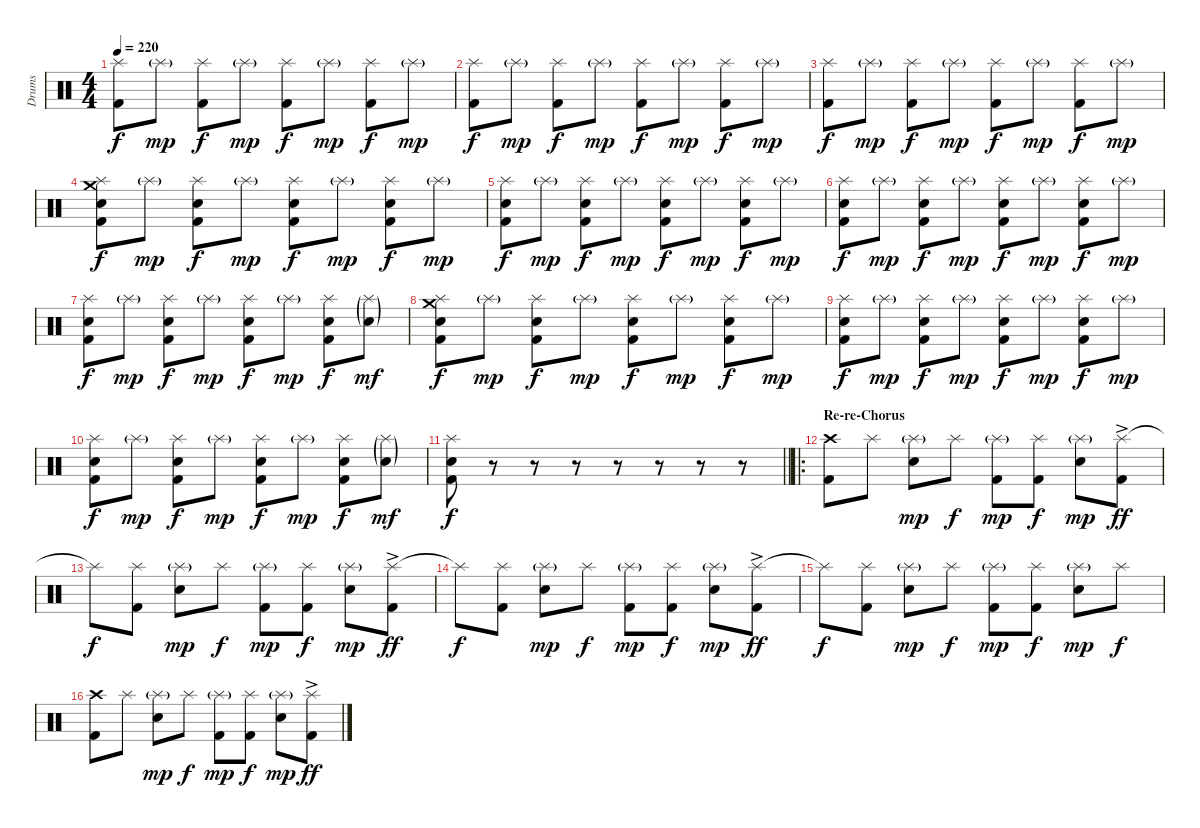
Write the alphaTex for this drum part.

\track ("Drums" "Drums") {instrument percussion}
\staff {score}
\articulation defaults
\ts (4 4)
\tempo 220
\clef neutral
\ks c
("Splash (hit)" "Kick (hit) 2").8{dy f} "Splash (hit)"{g}.8{dy mp} ("Splash (hit)" "Kick (hit) 2").8{dy f} "Splash (hit)"{g}.8{dy mp} ("Splash (hit)" "Kick (hit) 2").8{dy f} "Splash (hit)"{g}.8{dy mp} ("Splash (hit)" "Kick (hit) 2").8{dy f} "Splash (hit)"{g}.8{dy mp} |
("Splash (hit)" "Kick (hit) 2").8{dy f} "Splash (hit)"{g}.8{dy mp} ("Splash (hit)" "Kick (hit) 2").8{dy f} "Splash (hit)"{g}.8{dy mp} ("Splash (hit)" "Kick (hit) 2").8{dy f} "Splash (hit)"{g}.8{dy mp} ("Splash (hit)" "Kick (hit) 2").8{dy f} "Splash (hit)"{g}.8{dy mp} |
("Splash (hit)" "Kick (hit) 2").8{dy f} "Splash (hit)"{g}.8{dy mp} ("Splash (hit)" "Kick (hit) 2").8{dy f} "Splash (hit)"{g}.8{dy mp} ("Splash (hit)" "Kick (hit) 2").8{dy f} "Splash (hit)"{g}.8{dy mp} ("Splash (hit)" "Kick (hit) 2").8{dy f} "Splash (hit)"{g}.8{dy mp} |
("Crash medium (hit)" "Splash (hit)" "Electric Snare (hit)" "Kick (hit) 2").8{dy f} "Splash (hit)"{g}.8{dy mp} ("Splash (hit)" "Electric Snare (hit)" "Kick (hit) 2").8{dy f} "Splash (hit)"{g}.8{dy mp} ("Splash (hit)" "Electric Snare (hit)" "Kick (hit) 2").8{dy f} "Splash (hit)"{g}.8{dy mp} ("Splash (hit)" "Electric Snare (hit)" "Kick (hit) 2").8{dy f} "Splash (hit)"{g}.8{dy mp} |
("Splash (hit)" "Electric Snare (hit)" "Kick (hit) 2").8{dy f} "Splash (hit)"{g}.8{dy mp} ("Splash (hit)" "Electric Snare (hit)" "Kick (hit) 2").8{dy f} "Splash (hit)"{g}.8{dy mp} ("Splash (hit)" "Electric Snare (hit)" "Kick (hit) 2").8{dy f} "Splash (hit)"{g}.8{dy mp} ("Splash (hit)" "Electric Snare (hit)" "Kick (hit) 2").8{dy f} "Splash (hit)"{g}.8{dy mp} |
("Splash (hit)" "Electric Snare (hit)" "Kick (hit) 2").8{dy f} "Splash (hit)"{g}.8{dy mp} ("Splash (hit)" "Electric Snare (hit)" "Kick (hit) 2").8{dy f} "Splash (hit)"{g}.8{dy mp} ("Splash (hit)" "Electric Snare (hit)" "Kick (hit) 2").8{dy f} "Splash (hit)"{g}.8{dy mp} ("Splash (hit)" "Electric Snare (hit)" "Kick (hit) 2").8{dy f} "Splash (hit)"{g}.8{dy mp} |
("Splash (hit)" "Electric Snare (hit)" "Kick (hit) 2").8{dy f} "Splash (hit)"{g}.8{dy mp} ("Splash (hit)" "Electric Snare (hit)" "Kick (hit) 2").8{dy f} "Splash (hit)"{g}.8{dy mp} ("Splash (hit)" "Electric Snare (hit)" "Kick (hit) 2").8{dy f} "Splash (hit)"{g}.8{dy mp} ("Splash (hit)" "Electric Snare (hit)" "Kick (hit) 2").8{dy f} ("Splash (hit)"{g} "Electric Snare (hit)"{g}).8{dy mf} |
("Crash medium (hit)" "Splash (hit)" "Electric Snare (hit)" "Kick (hit) 2").8{dy f} "Splash (hit)"{g}.8{dy mp} ("Splash (hit)" "Electric Snare (hit)" "Kick (hit) 2").8{dy f} "Splash (hit)"{g}.8{dy mp} ("Splash (hit)" "Electric Snare (hit)" "Kick (hit) 2").8{dy f} "Splash (hit)"{g}.8{dy mp} ("Splash (hit)" "Electric Snare (hit)" "Kick (hit) 2").8{dy f} "Splash (hit)"{g}.8{dy mp} |
("Splash (hit)" "Electric Snare (hit)" "Kick (hit) 2").8{dy f} "Splash (hit)"{g}.8{dy mp} ("Splash (hit)" "Electric Snare (hit)" "Kick (hit) 2").8{dy f} "Splash (hit)"{g}.8{dy mp} ("Splash (hit)" "Electric Snare (hit)" "Kick (hit) 2").8{dy f} "Splash (hit)"{g}.8{dy mp} ("Splash (hit)" "Electric Snare (hit)" "Kick (hit) 2").8{dy f} "Splash (hit)"{g}.8{dy mp} |
("Splash (hit)" "Electric Snare (hit)" "Kick (hit) 2").8{dy f} "Splash (hit)"{g}.8{dy mp} ("Splash (hit)" "Electric Snare (hit)" "Kick (hit) 2").8{dy f} "Splash (hit)"{g}.8{dy mp} ("Splash (hit)" "Electric Snare (hit)" "Kick (hit) 2").8{dy f} "Splash (hit)"{g}.8{dy mp} ("Splash (hit)" "Electric Snare (hit)" "Kick (hit) 2").8{dy f} ("Splash (hit)"{g} "Electric Snare (hit)"{g}).8{dy mf} |
\barLineRight lightlight
("Splash (hit)" "Electric Snare (hit)" "Kick (hit) 2").8{dy f} r.8 r.8 r.8 r.8 r.8 r.8 r.8 |
\ro
\section ("" "Re-re-Chorus")
("Crash high (hit)" "Kick (hit) 2").8 "Splash (hit)".8 ("Splash (hit)"{g} "Electric Snare (hit)").8{dy mp} "Splash (hit)".8{dy f} ("Splash (hit)"{g} "Kick (hit) 2").8{dy mp} ("Splash (hit)" "Kick (hit) 2").8{dy f} ("Splash (hit)"{g} "Electric Snare (hit)").8{dy mp} ("Splash (hit)"{ac} "Kick (hit) 2").8{dy ff} |
"Splash (hit)"{t}.8{dy f} ("Splash (hit)" "Kick (hit) 2").8 ("Splash (hit)"{g} "Electric Snare (hit)").8{dy mp} "Splash (hit)".8{dy f} ("Splash (hit)"{g} "Kick (hit) 2").8{dy mp} ("Splash (hit)" "Kick (hit) 2").8{dy f} ("Splash (hit)"{g} "Electric Snare (hit)").8{dy mp} ("Splash (hit)"{ac} "Kick (hit) 2").8{dy ff} |
"Splash (hit)"{t}.8{dy f} ("Splash (hit)" "Kick (hit) 2").8 ("Splash (hit)"{g} "Electric Snare (hit)").8{dy mp} "Splash (hit)".8{dy f} ("Splash (hit)"{g} "Kick (hit) 2").8{dy mp} ("Splash (hit)" "Kick (hit) 2").8{dy f} ("Splash (hit)"{g} "Electric Snare (hit)").8{dy mp} ("Splash (hit)"{ac} "Kick (hit) 2").8{dy ff} |
"Splash (hit)"{t}.8{dy f} ("Splash (hit)" "Kick (hit) 2").8 ("Splash (hit)"{g} "Electric Snare (hit)").8{dy mp} "Splash (hit)".8{dy f} ("Splash (hit)"{g} "Kick (hit) 2").8{dy mp} ("Splash (hit)" "Kick (hit) 2").8{dy f} ("Splash (hit)"{g} "Electric Snare (hit)").8{dy mp} "Splash (hit)".8{dy f} |
("Crash high (hit)" "Kick (hit) 2").8 "Splash (hit)".8 ("Splash (hit)"{g} "Electric Snare (hit)").8{dy mp} "Splash (hit)".8{dy f} ("Splash (hit)"{g} "Kick (hit) 2").8{dy mp} ("Splash (hit)" "Kick (hit) 2").8{dy f} ("Splash (hit)"{g} "Electric Snare (hit)").8{dy mp} ("Splash (hit)"{ac} "Kick (hit) 2").8{dy ff}
